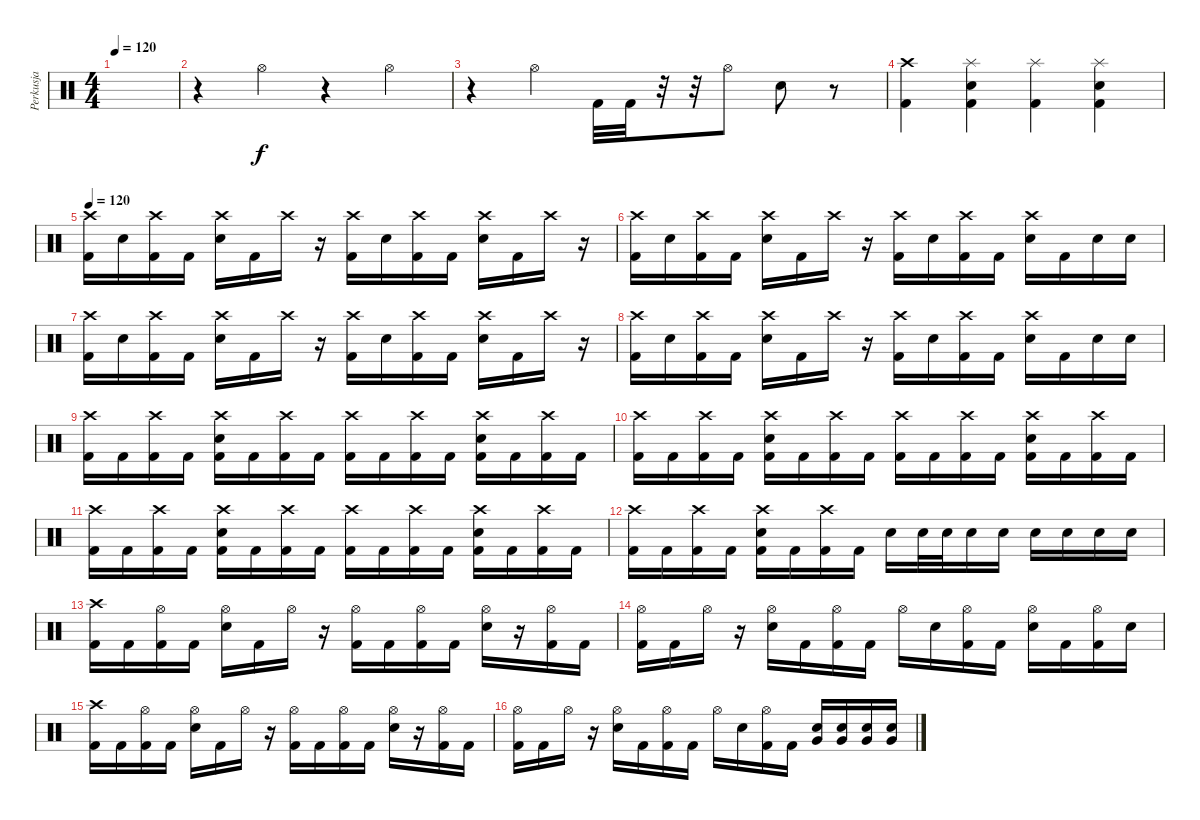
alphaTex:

\track ("Perkusja" "Perkusja") {instrument percussion}
\staff {score}
\articulation defaults
\ts (4 4)
\tempo 120
\clef neutral
\ks c
|
r.4 "Hi-Hat (open)".4 r.4 "Hi-Hat (open)".4 |
r.4 "Hi-Hat (open)".4 "Kick (hit) 2".32 "Kick (hit) 2".32 r.32 r.32 "Hi-Hat (open)".8 "Electric Snare (hit)".8 r.8 |
("Crash high (hit)" "Kick (hit) 2").4 ("Splash (hit)" "Electric Snare (hit)" "Kick (hit) 2").4 ("Splash (hit)" "Kick (hit) 2").4 ("Splash (hit)" "Electric Snare (hit)" "Kick (hit) 2").4 |
\tempo 120
("Crash high (hit)" "Kick (hit) 2").16 "Electric Snare (hit)".16 ("Crash high (hit)" "Kick (hit) 2").16 "Kick (hit) 2".16 ("Crash high (hit)" "Electric Snare (hit)").16 "Kick (hit) 2".16 "Crash high (hit)".16 r.16 ("Crash high (hit)" "Kick (hit) 2").16 "Electric Snare (hit)".16 ("Crash high (hit)" "Kick (hit) 2").16 "Kick (hit) 2".16 ("Crash high (hit)" "Electric Snare (hit)").16 "Kick (hit) 2".16 "Crash high (hit)".16 r.16 |
("Crash high (hit)" "Kick (hit) 2").16 "Electric Snare (hit)".16 ("Crash high (hit)" "Kick (hit) 2").16 "Kick (hit) 2".16 ("Crash high (hit)" "Electric Snare (hit)").16 "Kick (hit) 2".16 "Crash high (hit)".16 r.16 ("Crash high (hit)" "Kick (hit) 2").16 "Electric Snare (hit)".16 ("Crash high (hit)" "Kick (hit) 2").16 "Kick (hit) 2".16 ("Crash high (hit)" "Electric Snare (hit)").16 "Kick (hit) 2".16 "Electric Snare (hit)".16 "Electric Snare (hit)".16 |
("Crash high (hit)" "Kick (hit) 2").16 "Electric Snare (hit)".16 ("Crash high (hit)" "Kick (hit) 2").16 "Kick (hit) 2".16 ("Crash high (hit)" "Electric Snare (hit)").16 "Kick (hit) 2".16 "Crash high (hit)".16 r.16 ("Crash high (hit)" "Kick (hit) 2").16 "Electric Snare (hit)".16 ("Crash high (hit)" "Kick (hit) 2").16 "Kick (hit) 2".16 ("Crash high (hit)" "Electric Snare (hit)").16 "Kick (hit) 2".16 "Crash high (hit)".16 r.16 |
("Crash high (hit)" "Kick (hit) 2").16 "Electric Snare (hit)".16 ("Crash high (hit)" "Kick (hit) 2").16 "Kick (hit) 2".16 ("Crash high (hit)" "Electric Snare (hit)").16 "Kick (hit) 2".16 "Crash high (hit)".16 r.16 ("Crash high (hit)" "Kick (hit) 2").16 "Electric Snare (hit)".16 ("Crash high (hit)" "Kick (hit) 2").16 "Kick (hit) 2".16 ("Crash high (hit)" "Electric Snare (hit)").16 "Kick (hit) 2".16 "Electric Snare (hit)".16 "Electric Snare (hit)".16 |
("Crash high (hit)" "Kick (hit) 2").16 "Kick (hit) 2".16 ("Crash high (hit)" "Kick (hit) 2").16 "Kick (hit) 2".16 ("Crash high (hit)" "Electric Snare (hit)" "Kick (hit) 2").16 "Kick (hit) 2".16 ("Crash high (hit)" "Kick (hit) 2").16 "Kick (hit) 2".16 ("Crash high (hit)" "Kick (hit) 2").16 "Kick (hit) 2".16 ("Crash high (hit)" "Kick (hit) 2").16 "Kick (hit) 2".16 ("Crash high (hit)" "Electric Snare (hit)" "Kick (hit) 2").16 "Kick (hit) 2".16 ("Crash high (hit)" "Kick (hit) 2").16 "Kick (hit) 2".16 |
("Crash high (hit)" "Kick (hit) 2").16 "Kick (hit) 2".16 ("Crash high (hit)" "Kick (hit) 2").16 "Kick (hit) 2".16 ("Crash high (hit)" "Electric Snare (hit)" "Kick (hit) 2").16 "Kick (hit) 2".16 ("Crash high (hit)" "Kick (hit) 2").16 "Kick (hit) 2".16 ("Crash high (hit)" "Kick (hit) 2").16 "Kick (hit) 2".16 ("Crash high (hit)" "Kick (hit) 2").16 "Kick (hit) 2".16 ("Crash high (hit)" "Electric Snare (hit)" "Kick (hit) 2").16 "Kick (hit) 2".16 ("Crash high (hit)" "Kick (hit) 2").16 "Kick (hit) 2".16 |
("Crash high (hit)" "Kick (hit) 2").16 "Kick (hit) 2".16 ("Crash high (hit)" "Kick (hit) 2").16 "Kick (hit) 2".16 ("Crash high (hit)" "Electric Snare (hit)" "Kick (hit) 2").16 "Kick (hit) 2".16 ("Crash high (hit)" "Kick (hit) 2").16 "Kick (hit) 2".16 ("Crash high (hit)" "Kick (hit) 2").16 "Kick (hit) 2".16 ("Crash high (hit)" "Kick (hit) 2").16 "Kick (hit) 2".16 ("Crash high (hit)" "Electric Snare (hit)" "Kick (hit) 2").16 "Kick (hit) 2".16 ("Crash high (hit)" "Kick (hit) 2").16 "Kick (hit) 2".16 |
("Crash high (hit)" "Kick (hit) 2").16 "Kick (hit) 2".16 ("Crash high (hit)" "Kick (hit) 2").16 "Kick (hit) 2".16 ("Crash high (hit)" "Electric Snare (hit)" "Kick (hit) 2").16 "Kick (hit) 2".16 ("Crash high (hit)" "Kick (hit) 2").16 "Kick (hit) 2".16 "Electric Snare (hit)".16 "Electric Snare (hit)".32 "Electric Snare (hit)".32 "Electric Snare (hit)".16 "Electric Snare (hit)".16 "Electric Snare (hit)".16 "Electric Snare (hit)".16 "Electric Snare (hit)".16 "Electric Snare (hit)".16 |
("Crash high (hit)" "Kick (hit) 2").16 "Kick (hit) 2".16 ("Hi-Hat (open)" "Kick (hit) 2").16 "Kick (hit) 2".16 ("Hi-Hat (open)" "Electric Snare (hit)").16 "Kick (hit) 2".16 "Hi-Hat (open)".16 r.16 ("Hi-Hat (open)" "Kick (hit) 2").16 "Kick (hit) 2".16 ("Hi-Hat (open)" "Kick (hit) 2").16 "Kick (hit) 2".16 ("Hi-Hat (open)" "Electric Snare (hit)").16 r.16 ("Hi-Hat (open)" "Kick (hit) 2").16 "Kick (hit) 2".16 |
("Hi-Hat (open)" "Kick (hit) 2").16 "Kick (hit) 2".16 "Hi-Hat (open)".16 r.16 ("Hi-Hat (open)" "Electric Snare (hit)").16 "Kick (hit) 2".16 ("Hi-Hat (open)" "Kick (hit) 2").16 "Kick (hit) 2".16 "Hi-Hat (open)".16 "Electric Snare (hit)".16 ("Hi-Hat (open)" "Kick (hit) 2").16 "Kick (hit) 2".16 ("Hi-Hat (open)" "Electric Snare (hit)").16 "Kick (hit) 2".16 ("Hi-Hat (open)" "Kick (hit) 2").16 "Electric Snare (hit)".16 |
("Crash high (hit)" "Kick (hit) 2").16 "Kick (hit) 2".16 ("Hi-Hat (open)" "Kick (hit) 2").16 "Kick (hit) 2".16 ("Hi-Hat (open)" "Electric Snare (hit)").16 "Kick (hit) 2".16 "Hi-Hat (open)".16 r.16 ("Hi-Hat (open)" "Kick (hit) 2").16 "Kick (hit) 2".16 ("Hi-Hat (open)" "Kick (hit) 2").16 "Kick (hit) 2".16 ("Hi-Hat (open)" "Electric Snare (hit)").16 r.16 ("Hi-Hat (open)" "Kick (hit) 2").16 "Kick (hit) 2".16 |
("Hi-Hat (open)" "Kick (hit) 2").16 "Kick (hit) 2".16 "Hi-Hat (open)".16 r.16 ("Hi-Hat (open)" "Electric Snare (hit)").16 "Kick (hit) 2".16 ("Hi-Hat (open)" "Kick (hit) 2").16 "Kick (hit) 2".16 "Hi-Hat (open)".16 "Electric Snare (hit)".16 ("Hi-Hat (open)" "Kick (hit) 2").16 "Kick (hit) 2".16 ("Very Low Tom (hit)" "Electric Snare (hit)").16 ("Very Low Tom (hit)" "Electric Snare (hit)").16 ("Very Low Tom (hit)" "Electric Snare (hit)").16 ("Very Low Tom (hit)" "Electric Snare (hit)").16
